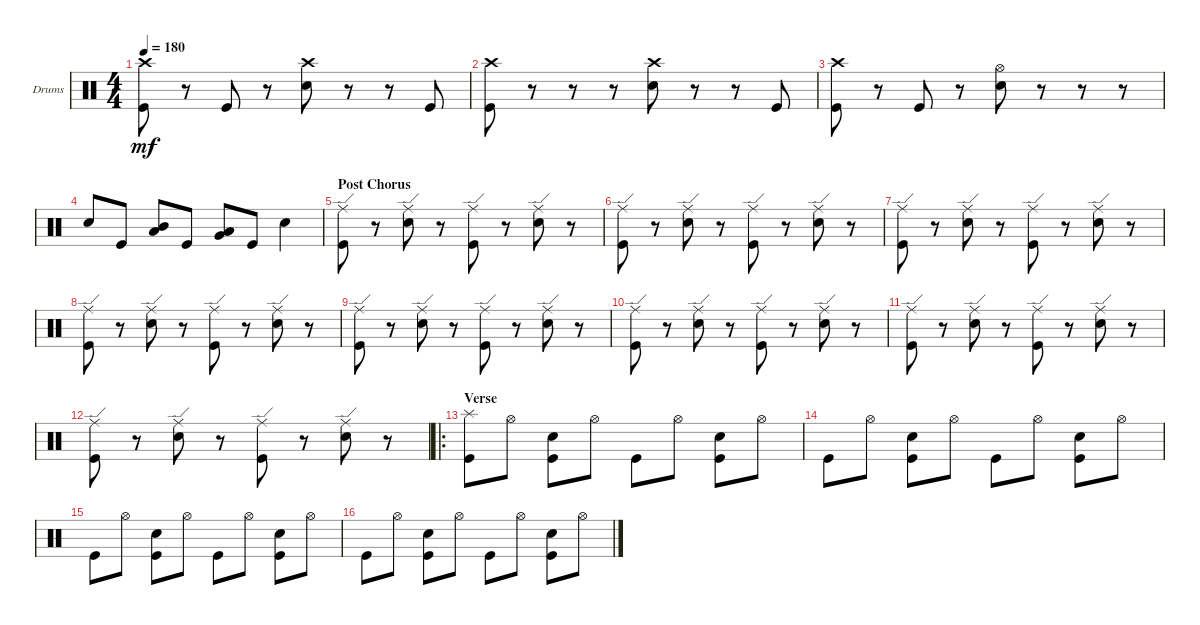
\bracketExtendMode groupsimilarinstruments
\firstSystemTrackNameOrientation horizontal
\otherSystemsTrackNameOrientation horizontal
\track ("Drumkit" "Drums") {instrument percussion}
\staff {score}
\articulation defaults
\ts (4 4)
\tempo 180
\clef neutral
\ks c
("Kick (hit)" "Crash high (hit)").8{dy mf} r.8 "Kick (hit)".8 r.8 ("Snare (hit) 2" "Crash high (hit)").8 r.8 r.8 "Kick (hit)".8 |
("Kick (hit)" "Crash high (hit)").8 r.8 r.8 r.8 ("Snare (hit) 2" "Crash high (hit)").8 r.8 r.8 "Kick (hit)".8 |
("Kick (hit)" "Crash high (hit)").8 r.8 "Kick (hit)".8 r.8 ("Snare (hit) 2" "Hi-Hat (open)").8 r.8 r.8 r.8 |
"Snare (hit) 2".8 "Kick (hit)".8 ("Mid Tom (hit)" "Low Tom (hit)").8 "Kick (hit)".8 ("Low Tom (hit)" "Very Low Tom (hit)").8 "Kick (hit)".8 "Snare (hit) 2".4 |
\section ("" "Post Chorus")
("Kick (hit)" "Ride (edge)").8 r.8 ("Snare (hit) 2" "Ride (edge)").8 r.8 ("Kick (hit)" "Ride (edge)").8 r.8 ("Snare (hit) 2" "Ride (edge)").8 r.8 |
("Kick (hit)" "Ride (edge)").8 r.8 ("Snare (hit) 2" "Ride (edge)").8 r.8 ("Kick (hit)" "Ride (edge)").8 r.8 ("Snare (hit) 2" "Ride (edge)").8 r.8 |
("Kick (hit)" "Ride (edge)").8 r.8 ("Snare (hit) 2" "Ride (edge)").8 r.8 ("Kick (hit)" "Ride (edge)").8 r.8 ("Snare (hit) 2" "Ride (edge)").8 r.8 |
("Kick (hit)" "Ride (edge)").8 r.8 ("Snare (hit) 2" "Ride (edge)").8 r.8 ("Kick (hit)" "Ride (edge)").8 r.8 ("Snare (hit) 2" "Ride (edge)").8 r.8 |
("Kick (hit)" "Ride (edge)").8 r.8 ("Snare (hit) 2" "Ride (edge)").8 r.8 ("Kick (hit)" "Ride (edge)").8 r.8 ("Snare (hit) 2" "Ride (edge)").8 r.8 |
("Kick (hit)" "Ride (edge)").8 r.8 ("Snare (hit) 2" "Ride (edge)").8 r.8 ("Kick (hit)" "Ride (edge)").8 r.8 ("Snare (hit) 2" "Ride (edge)").8 r.8 |
("Kick (hit)" "Ride (edge)").8 r.8 ("Snare (hit) 2" "Ride (edge)").8 r.8 ("Kick (hit)" "Ride (edge)").8 r.8 ("Snare (hit) 2" "Ride (edge)").8 r.8 |
("Kick (hit)" "Ride (edge)").8 r.8 ("Snare (hit) 2" "Ride (edge)").8 r.8 ("Kick (hit)" "Ride (edge)").8 r.8 ("Snare (hit) 2" "Ride (edge)").8 r.8 |
\ro
\section ("" "Verse")
("Kick (hit)" "Splash (hit)").8 "Hi-Hat (open)".8 ("Snare (hit) 2" "Kick (hit)").8 "Hi-Hat (open)".8 "Kick (hit)".8 "Hi-Hat (open)".8 ("Snare (hit) 2" "Kick (hit)").8 "Hi-Hat (open)".8 |
"Kick (hit)".8 "Hi-Hat (open)".8 ("Snare (hit) 2" "Kick (hit)").8 "Hi-Hat (open)".8 "Kick (hit)".8 "Hi-Hat (open)".8 ("Snare (hit) 2" "Kick (hit)").8 "Hi-Hat (open)".8 |
"Kick (hit)".8 "Hi-Hat (open)".8 ("Snare (hit) 2" "Kick (hit)").8 "Hi-Hat (open)".8 "Kick (hit)".8 "Hi-Hat (open)".8 ("Snare (hit) 2" "Kick (hit)").8 "Hi-Hat (open)".8 |
"Kick (hit)".8 "Hi-Hat (open)".8 ("Snare (hit) 2" "Kick (hit)").8 "Hi-Hat (open)".8 "Kick (hit)".8 "Hi-Hat (open)".8 ("Snare (hit) 2" "Kick (hit)").8 "Hi-Hat (open)".8
